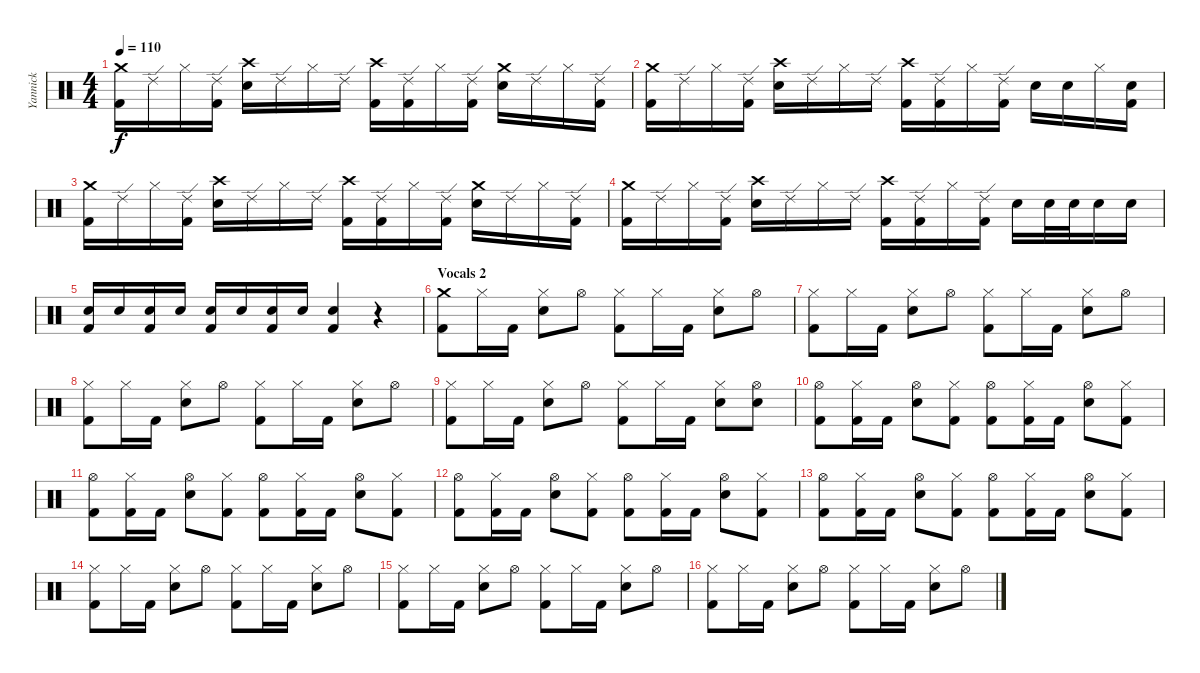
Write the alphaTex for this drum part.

\track ("Yannick" "Yannick") {instrument percussion}
\staff {score}
\articulation defaults
\ts (4 4)
\tempo 110
\clef neutral
\ks c
("Crash medium (hit)" "Kick (hit) 2").16{dy f} "Ride (edge) 2".16 "Hi-Hat (closed)".16 ("Ride (edge) 2" "Kick (hit) 2").16 ("Crash high (hit)" "Electric Snare (hit)").16 "Ride (edge) 2".16 "Hi-Hat (closed)".16 "Ride (edge) 2".16 ("Crash high (hit)" "Kick (hit) 2").16 ("Ride (edge) 2" "Kick (hit) 2").16 "Hi-Hat (closed)".16 ("Ride (edge) 2" "Kick (hit) 2").16 ("Crash medium (hit)" "Electric Snare (hit)").16 "Ride (edge) 2".16 "Hi-Hat (closed)".16 ("Ride (edge) 2" "Kick (hit) 2").16 |
("Crash medium (hit)" "Kick (hit) 2").16 "Ride (edge) 2".16 "Hi-Hat (closed)".16 ("Ride (edge) 2" "Kick (hit) 2").16 ("Crash high (hit)" "Electric Snare (hit)").16 "Ride (edge) 2".16 "Hi-Hat (closed)".16 "Ride (edge) 2".16 ("Crash high (hit)" "Kick (hit) 2").16 ("Ride (edge) 2" "Kick (hit) 2").16 "Hi-Hat (closed)".16 ("Ride (edge) 2" "Kick (hit) 2").16 "Electric Snare (hit)".16 "Electric Snare (hit)".16 "Hi-Hat (closed)".16 ("Electric Snare (hit)" "Kick (hit) 2").16 |
("Crash medium (hit)" "Kick (hit) 2").16 "Ride (edge) 2".16 "Hi-Hat (closed)".16 ("Ride (edge) 2" "Kick (hit) 2").16 ("Crash high (hit)" "Electric Snare (hit)").16 "Ride (edge) 2".16 "Hi-Hat (closed)".16 "Ride (edge) 2".16 ("Crash high (hit)" "Kick (hit) 2").16 ("Ride (edge) 2" "Kick (hit) 2").16 "Hi-Hat (closed)".16 ("Ride (edge) 2" "Kick (hit) 2").16 ("Crash medium (hit)" "Electric Snare (hit)").16 "Ride (edge) 2".16 "Hi-Hat (closed)".16 ("Ride (edge) 2" "Kick (hit) 2").16 |
("Crash medium (hit)" "Kick (hit) 2").16 "Ride (edge) 2".16 "Hi-Hat (closed)".16 ("Ride (edge) 2" "Kick (hit) 2").16 ("Crash high (hit)" "Electric Snare (hit)").16 "Ride (edge) 2".16 "Hi-Hat (closed)".16 "Ride (edge) 2".16 ("Crash high (hit)" "Kick (hit) 2").16 ("Ride (edge) 2" "Kick (hit) 2").16 "Hi-Hat (closed)".16 ("Ride (edge) 2" "Kick (hit) 2").16 "Electric Snare (hit)".16 "Electric Snare (hit)".32 "Electric Snare (hit)".32 "Electric Snare (hit)".16 "Electric Snare (hit)".16 |
("Electric Snare (hit)" "Kick (hit) 2").16 "Electric Snare (hit)".16 ("Electric Snare (hit)" "Kick (hit) 2").16 "Electric Snare (hit)".16 ("Electric Snare (hit)" "Kick (hit) 2").16 "Electric Snare (hit)".16 ("Electric Snare (hit)" "Kick (hit) 2").16 "Electric Snare (hit)".16 ("Electric Snare (hit)" "Kick (hit) 2").4 r.4 |
\section ("" "Vocals 2")
("Crash medium (hit)" "Kick (hit) 2").8 "Hi-Hat (closed)".16 "Kick (hit) 2".16 ("Hi-Hat (closed)" "Electric Snare (hit)").8 "Hi-Hat (open)".8 ("Hi-Hat (closed)" "Kick (hit) 2").8 "Hi-Hat (closed)".16 "Kick (hit) 2".16 ("Hi-Hat (closed)" "Electric Snare (hit)").8 "Hi-Hat (open)".8 |
("Hi-Hat (closed)" "Kick (hit) 2").8 "Hi-Hat (closed)".16 "Kick (hit) 2".16 ("Hi-Hat (closed)" "Electric Snare (hit)").8 "Hi-Hat (open)".8 ("Hi-Hat (closed)" "Kick (hit) 2").8 "Hi-Hat (closed)".16 "Kick (hit) 2".16 ("Hi-Hat (closed)" "Electric Snare (hit)").8 "Hi-Hat (open)".8 |
("Hi-Hat (closed)" "Kick (hit) 2").8 "Hi-Hat (closed)".16 "Kick (hit) 2".16 ("Hi-Hat (closed)" "Electric Snare (hit)").8 "Hi-Hat (open)".8 ("Hi-Hat (closed)" "Kick (hit) 2").8 "Hi-Hat (closed)".16 "Kick (hit) 2".16 ("Hi-Hat (closed)" "Electric Snare (hit)").8 "Hi-Hat (open)".8 |
("Hi-Hat (closed)" "Kick (hit) 2").8 "Hi-Hat (closed)".16 "Kick (hit) 2".16 ("Hi-Hat (closed)" "Electric Snare (hit)").8 "Hi-Hat (open)".8 ("Hi-Hat (closed)" "Kick (hit) 2").8 "Hi-Hat (closed)".16 "Kick (hit) 2".16 ("Hi-Hat (closed)" "Electric Snare (hit)").8 ("Hi-Hat (open)" "Electric Snare (hit)").8 |
("Hi-Hat (open)" "Kick (hit) 2").8 ("Hi-Hat (closed)" "Kick (hit) 2").16 "Kick (hit) 2".16 ("Hi-Hat (open)" "Electric Snare (hit)").8 ("Hi-Hat (closed)" "Kick (hit) 2").8 ("Hi-Hat (open)" "Kick (hit) 2").8 ("Hi-Hat (closed)" "Kick (hit) 2").16 "Kick (hit) 2".16 ("Hi-Hat (open)" "Electric Snare (hit)").8 ("Hi-Hat (closed)" "Kick (hit) 2").8 |
("Hi-Hat (open)" "Kick (hit) 2").8 ("Hi-Hat (closed)" "Kick (hit) 2").16 "Kick (hit) 2".16 ("Hi-Hat (open)" "Electric Snare (hit)").8 ("Hi-Hat (closed)" "Kick (hit) 2").8 ("Hi-Hat (open)" "Kick (hit) 2").8 ("Hi-Hat (closed)" "Kick (hit) 2").16 "Kick (hit) 2".16 ("Hi-Hat (open)" "Electric Snare (hit)").8 ("Hi-Hat (closed)" "Kick (hit) 2").8 |
("Hi-Hat (open)" "Kick (hit) 2").8 ("Hi-Hat (closed)" "Kick (hit) 2").16 "Kick (hit) 2".16 ("Hi-Hat (open)" "Electric Snare (hit)").8 ("Hi-Hat (closed)" "Kick (hit) 2").8 ("Hi-Hat (open)" "Kick (hit) 2").8 ("Hi-Hat (closed)" "Kick (hit) 2").16 "Kick (hit) 2".16 ("Hi-Hat (open)" "Electric Snare (hit)").8 ("Hi-Hat (closed)" "Kick (hit) 2").8 |
("Hi-Hat (open)" "Kick (hit) 2").8 ("Hi-Hat (closed)" "Kick (hit) 2").16 "Kick (hit) 2".16 ("Hi-Hat (open)" "Electric Snare (hit)").8 ("Hi-Hat (closed)" "Kick (hit) 2").8 ("Hi-Hat (open)" "Kick (hit) 2").8 ("Hi-Hat (closed)" "Kick (hit) 2").16 "Kick (hit) 2".16 ("Hi-Hat (open)" "Electric Snare (hit)").8 ("Hi-Hat (closed)" "Kick (hit) 2").8 |
("Hi-Hat (closed)" "Kick (hit) 2").8 "Hi-Hat (closed)".16 "Kick (hit) 2".16 ("Hi-Hat (closed)" "Electric Snare (hit)").8 "Hi-Hat (open)".8 ("Hi-Hat (closed)" "Kick (hit) 2").8 "Hi-Hat (closed)".16 "Kick (hit) 2".16 ("Hi-Hat (closed)" "Electric Snare (hit)").8 "Hi-Hat (open)".8 |
("Hi-Hat (closed)" "Kick (hit) 2").8 "Hi-Hat (closed)".16 "Kick (hit) 2".16 ("Hi-Hat (closed)" "Electric Snare (hit)").8 "Hi-Hat (open)".8 ("Hi-Hat (closed)" "Kick (hit) 2").8 "Hi-Hat (closed)".16 "Kick (hit) 2".16 ("Hi-Hat (closed)" "Electric Snare (hit)").8 "Hi-Hat (open)".8 |
("Hi-Hat (closed)" "Kick (hit) 2").8 "Hi-Hat (closed)".16 "Kick (hit) 2".16 ("Hi-Hat (closed)" "Electric Snare (hit)").8 "Hi-Hat (open)".8 ("Hi-Hat (closed)" "Kick (hit) 2").8 "Hi-Hat (closed)".16 "Kick (hit) 2".16 ("Hi-Hat (closed)" "Electric Snare (hit)").8 "Hi-Hat (open)".8
